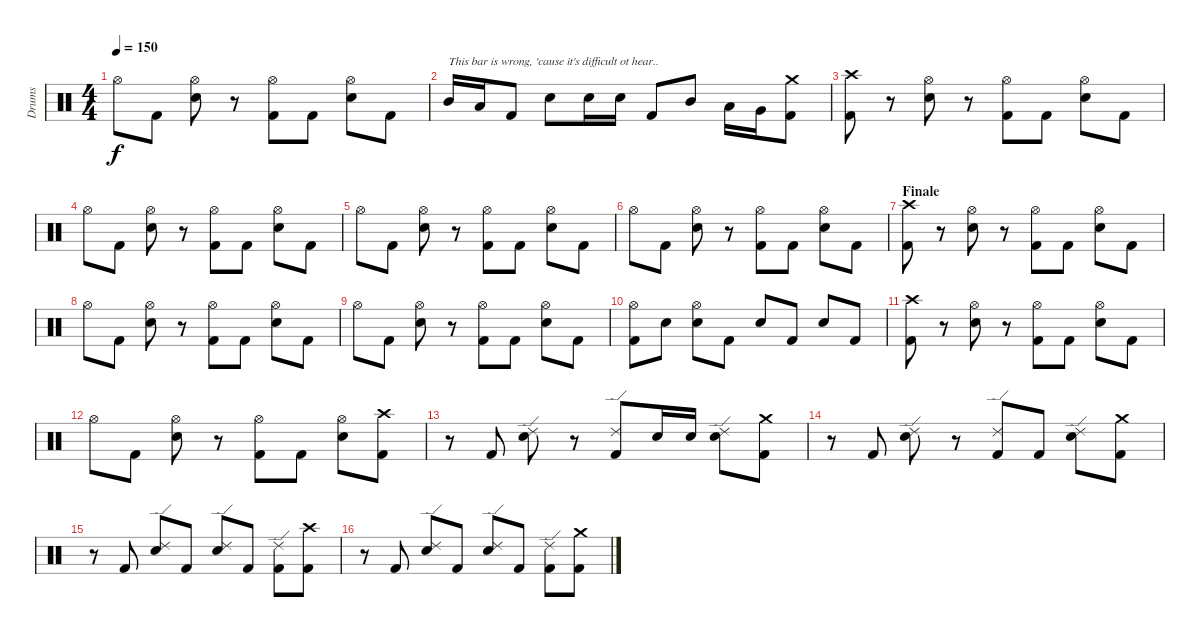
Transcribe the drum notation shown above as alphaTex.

\track ("Drums" "Drums") {instrument percussion}
\staff {score}
\articulation defaults
\ts (4 4)
\tempo 150
\clef neutral
\ks c "Hi-Hat (open)".8{dy f} "Kick (hit) 2".8
("Hi-Hat (open)" "Snare (hit) 2").8 r.8 ("Hi-Hat (open)" "Kick (hit) 2").8 "Kick (hit) 2".8 ("Hi-Hat (open)" "Snare (hit) 2").8 "Kick (hit) 2".8 |
"Mid Tom (hit)".16{txt "This bar is wrong, 'cause it's difficult ot hear.."} "Low Tom (hit)".16 "Kick (hit) 2".8 "Snare (hit) 2".8 "Snare (hit) 2".16 "Snare (hit) 2".16 "Kick (hit) 2".8 "Mid Tom (hit)".8 "Low Tom (hit)".16 "Very Low Tom (hit)".16 ("Crash medium (hit)" "Kick (hit) 2").8 |
("Crash high (hit)" "Kick (hit) 2").8 r.8 ("Hi-Hat (open)" "Snare (hit) 2").8 r.8 ("Hi-Hat (open)" "Kick (hit) 2").8 "Kick (hit) 2".8 ("Hi-Hat (open)" "Snare (hit) 2").8 "Kick (hit) 2".8 |
"Hi-Hat (open)".8 "Kick (hit) 2".8 ("Hi-Hat (open)" "Snare (hit) 2").8 r.8 ("Hi-Hat (open)" "Kick (hit) 2").8 "Kick (hit) 2".8 ("Hi-Hat (open)" "Snare (hit) 2").8 "Kick (hit) 2".8 |
"Hi-Hat (open)".8 "Kick (hit) 2".8 ("Hi-Hat (open)" "Snare (hit) 2").8 r.8 ("Hi-Hat (open)" "Kick (hit) 2").8 "Kick (hit) 2".8 ("Hi-Hat (open)" "Snare (hit) 2").8 "Kick (hit) 2".8 |
"Hi-Hat (open)".8 "Kick (hit) 2".8 ("Hi-Hat (open)" "Snare (hit) 2").8 r.8 ("Hi-Hat (open)" "Kick (hit) 2").8 "Kick (hit) 2".8 ("Hi-Hat (open)" "Snare (hit) 2").8 "Kick (hit) 2".8 |
\section ("" "Finale")
("Crash high (hit)" "Kick (hit) 2").8 r.8 ("Hi-Hat (open)" "Snare (hit) 2").8 r.8 ("Hi-Hat (open)" "Kick (hit) 2").8 "Kick (hit) 2".8 ("Hi-Hat (open)" "Snare (hit) 2").8 "Kick (hit) 2".8 |
"Hi-Hat (open)".8 "Kick (hit) 2".8 ("Hi-Hat (open)" "Snare (hit) 2").8 r.8 ("Hi-Hat (open)" "Kick (hit) 2").8 "Kick (hit) 2".8 ("Hi-Hat (open)" "Snare (hit) 2").8 "Kick (hit) 2".8 |
"Hi-Hat (open)".8 "Kick (hit) 2".8 ("Hi-Hat (open)" "Snare (hit) 2").8 r.8 ("Hi-Hat (open)" "Kick (hit) 2").8 "Kick (hit) 2".8 ("Hi-Hat (open)" "Snare (hit) 2").8 "Kick (hit) 2".8 |
("Hi-Hat (open)" "Kick (hit) 2").8 "Snare (hit) 2".8 ("Hi-Hat (open)" "Snare (hit) 2").8 "Kick (hit) 2".8 "Snare (hit) 2".8 "Kick (hit) 2".8 "Snare (hit) 2".8 "Kick (hit) 2".8 |
("Crash high (hit)" "Kick (hit) 2").8 r.8 ("Hi-Hat (open)" "Snare (hit) 2").8 r.8 ("Hi-Hat (open)" "Kick (hit) 2").8 "Kick (hit) 2".8 ("Hi-Hat (open)" "Snare (hit) 2").8 "Kick (hit) 2".8 |
"Hi-Hat (open)".8 "Kick (hit) 2".8 ("Hi-Hat (open)" "Snare (hit) 2").8 r.8 ("Hi-Hat (open)" "Kick (hit) 2").8 "Kick (hit) 2".8 ("Hi-Hat (open)" "Snare (hit) 2").8 ("Crash high (hit)" "Kick (hit) 2").8 |
r.8 "Kick (hit) 2".8 ("Ride (edge) 2" "Snare (hit) 2").8 r.8 ("Ride (edge) 2" "Kick (hit) 2").8 "Snare (hit) 2".16 "Snare (hit) 2".16 ("Ride (edge) 2" "Snare (hit) 2").8 ("Crash medium (hit)" "Kick (hit) 2").8 |
r.8 "Kick (hit) 2".8 ("Ride (edge) 2" "Snare (hit) 2").8 r.8 ("Ride (edge) 2" "Kick (hit) 2").8 "Kick (hit) 2".8 ("Ride (edge) 2" "Snare (hit) 2").8 ("Crash medium (hit)" "Kick (hit) 2").8 |
r.8 "Kick (hit) 2".8 ("Ride (edge) 2" "Snare (hit) 2").8 "Kick (hit) 2".8 ("Ride (edge) 2" "Snare (hit) 2").8 "Kick (hit) 2".8 ("Ride (edge) 2" "Kick (hit) 2").8 ("Crash high (hit)" "Kick (hit) 2").8 |
r.8 "Kick (hit) 2".8 ("Ride (edge) 2" "Snare (hit) 2").8 "Kick (hit) 2".8 ("Ride (edge) 2" "Snare (hit) 2").8 "Kick (hit) 2".8 ("Ride (edge) 2" "Kick (hit) 2").8 ("Crash medium (hit)" "Kick (hit) 2").8
